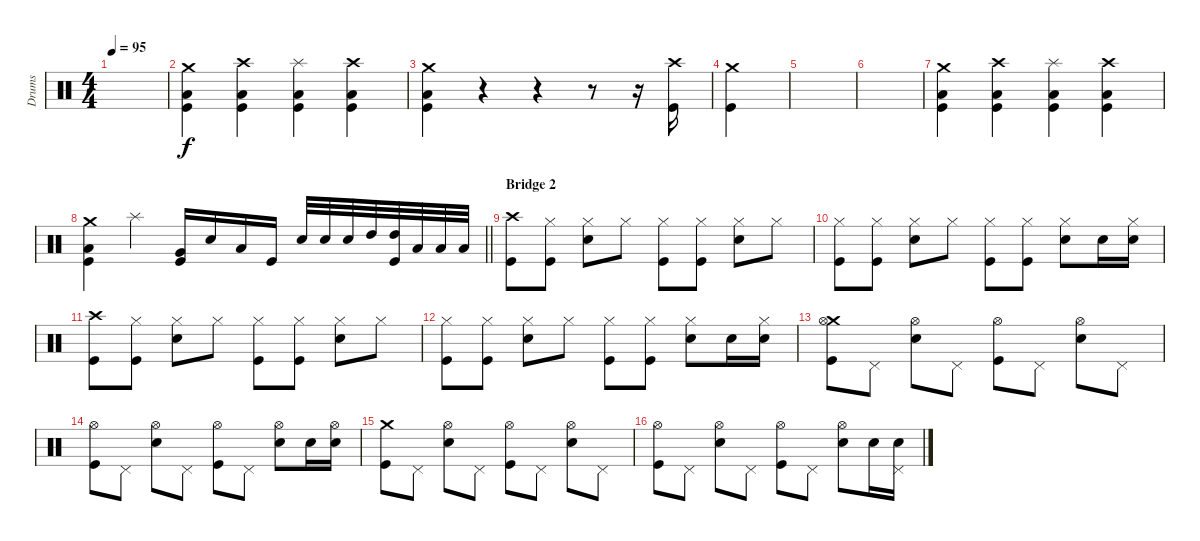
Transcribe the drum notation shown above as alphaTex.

\track ("Drums" "Drums") {instrument percussion}
\staff {score}
\articulation defaults
\ts (4 4)
\tempo 95
\clef neutral
\ks c
|
("Crash medium (hit)" "Low Floor Tom (hit)" "Kick (hit)").4 ("Crash high (hit)" "Low Floor Tom (hit)" "Kick (hit)").4 ("Splash (hit)" "Low Floor Tom (hit)" "Kick (hit)").4 ("Crash high (hit)" "Low Floor Tom (hit)" "Kick (hit)").4 |
("Crash medium (hit)" "Low Floor Tom (hit)" "Kick (hit)").4 r.4 r.4 r.8 r.16 ("Crash high (hit)" "Kick (hit)").16 |
("Crash medium (hit)" "Kick (hit)").4 |
|
|
("Crash medium (hit)" "Low Floor Tom (hit)" "Kick (hit)").4 ("Crash high (hit)" "Low Floor Tom (hit)" "Kick (hit)").4 ("Splash (hit)" "Low Floor Tom (hit)" "Kick (hit)").4 ("Crash high (hit)" "Low Floor Tom (hit)" "Kick (hit)").4 |
\barLineRight lightlight
("Crash medium (hit)" "Low Floor Tom (hit)" "Kick (hit)").4 "Splash (hit)".4 ("Very Low Tom (hit)" "Kick (hit)").16 "Snare (hit) 2".16 "Low Tom (hit)".16 "Kick (hit)".16 "Snare (hit) 2".32 "Snare (hit) 2".32 "Snare (hit) 2".32 "High Tom (hit)".32 ("High Tom (hit)" "Kick (hit)").32 "Low Tom (hit)".32 "Low Tom (hit)".32 "Low Floor Tom (hit)".32 |
\section ("" "Bridge 2")
("Crash high (hit)" "Kick (hit)").8 ("Hi-Hat (closed)" "Kick (hit)").8 ("Hi-Hat (closed)" "Snare (hit) 2").8 "Hi-Hat (closed)".8 ("Hi-Hat (closed)" "Kick (hit)").8 ("Hi-Hat (closed)" "Kick (hit)").8 ("Hi-Hat (closed)" "Snare (hit) 2").8 "Hi-Hat (closed)".8 |
("Hi-Hat (closed)" "Kick (hit)").8 ("Hi-Hat (closed)" "Kick (hit)").8 ("Hi-Hat (closed)" "Snare (hit) 2").8 "Hi-Hat (closed)".8 ("Hi-Hat (closed)" "Kick (hit)").8 ("Hi-Hat (closed)" "Kick (hit)").8 ("Hi-Hat (closed)" "Snare (hit) 2").8 "Snare (hit) 2".16 ("Hi-Hat (closed)" "Snare (hit) 2").16 |
("Crash high (hit)" "Kick (hit)").8 ("Hi-Hat (closed)" "Kick (hit)").8 ("Hi-Hat (closed)" "Snare (hit) 2").8 "Hi-Hat (closed)".8 ("Hi-Hat (closed)" "Kick (hit)").8 ("Hi-Hat (closed)" "Kick (hit)").8 ("Hi-Hat (closed)" "Snare (hit) 2").8 "Hi-Hat (closed)".8 |
("Hi-Hat (closed)" "Kick (hit)").8 ("Hi-Hat (closed)" "Kick (hit)").8 ("Hi-Hat (closed)" "Snare (hit) 2").8 "Hi-Hat (closed)".8 ("Hi-Hat (closed)" "Kick (hit)").8 ("Hi-Hat (closed)" "Kick (hit)").8 ("Hi-Hat (closed)" "Snare (hit) 2").8 "Snare (hit) 2".16 ("Hi-Hat (closed)" "Snare (hit) 2").16 |
("Crash medium (hit)" "Hi-Hat (open)" "Kick (hit)").8 "Pedal Hi-Hat (hit)".8 ("Hi-Hat (open)" "Snare (hit) 2").8 "Pedal Hi-Hat (hit)".8 ("Hi-Hat (open)" "Kick (hit)").8 "Pedal Hi-Hat (hit)".8 ("Hi-Hat (open)" "Snare (hit) 2").8 "Pedal Hi-Hat (hit)".8 |
("Hi-Hat (open)" "Kick (hit)").8 "Pedal Hi-Hat (hit)".8 ("Hi-Hat (open)" "Snare (hit) 2").8 "Pedal Hi-Hat (hit)".8 ("Hi-Hat (open)" "Kick (hit)").8 "Pedal Hi-Hat (hit)".8 ("Hi-Hat (open)" "Snare (hit) 2").8 "Snare (hit) 2".16 ("Hi-Hat (open)" "Snare (hit) 2").16 |
("Crash medium (hit)" "Kick (hit)").8 "Pedal Hi-Hat (hit)".8 ("Hi-Hat (open)" "Snare (hit) 2").8 "Pedal Hi-Hat (hit)".8 ("Hi-Hat (open)" "Kick (hit)").8 "Pedal Hi-Hat (hit)".8 ("Hi-Hat (open)" "Snare (hit) 2").8 "Pedal Hi-Hat (hit)".8 |
("Hi-Hat (open)" "Kick (hit)").8 "Pedal Hi-Hat (hit)".8 ("Hi-Hat (open)" "Snare (hit) 2").8 "Pedal Hi-Hat (hit)".8 ("Hi-Hat (open)" "Kick (hit)").8 "Pedal Hi-Hat (hit)".8 ("Hi-Hat (open)" "Snare (hit) 2").8 "Snare (hit) 2".16 ("Pedal Hi-Hat (hit)" "Snare (hit) 2").16
